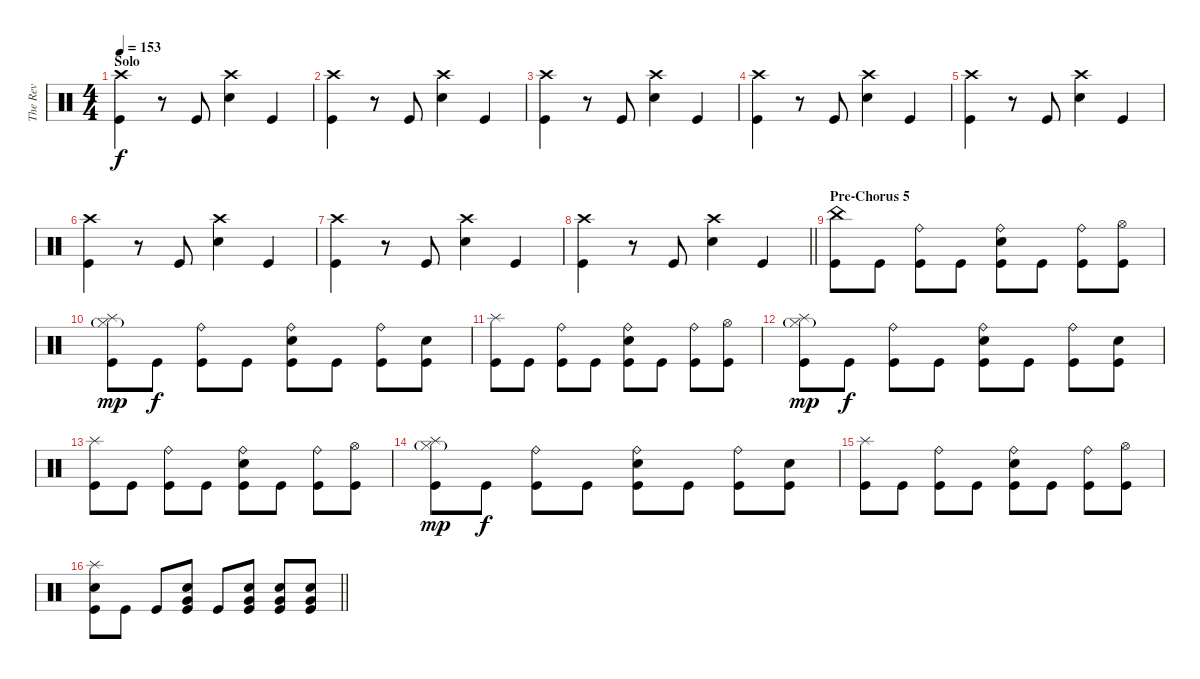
\track ("The Rev" "The Rev") {instrument percussion}
\staff {score}
\articulation defaults
\ts (4 4)
\section ("" "Solo")
\tempo 153
\clef neutral
\ks c
("Crash high (hit)" "Kick (hit)").4{dy f} r.8 "Kick (hit)".8 ("Crash high (hit)" "Electric Snare (hit)").4 "Kick (hit)".4 |
("Crash high (hit)" "Kick (hit)").4 r.8 "Kick (hit)".8 ("Crash high (hit)" "Electric Snare (hit)").4 "Kick (hit)".4 |
("Crash high (hit)" "Kick (hit)").4 r.8 "Kick (hit)".8 ("Crash high (hit)" "Electric Snare (hit)").4 "Kick (hit)".4 |
("Crash high (hit)" "Kick (hit)").4 r.8 "Kick (hit)".8 ("Crash high (hit)" "Electric Snare (hit)").4 "Kick (hit)".4 |
("Crash high (hit)" "Kick (hit)").4 r.8 "Kick (hit)".8 ("Crash high (hit)" "Electric Snare (hit)").4 "Kick (hit)".4 |
("Crash high (hit)" "Kick (hit)").4 r.8 "Kick (hit)".8 ("Crash high (hit)" "Electric Snare (hit)").4 "Kick (hit)".4 |
("Crash high (hit)" "Kick (hit)").4 r.8 "Kick (hit)".8 ("Crash high (hit)" "Electric Snare (hit)").4 "Kick (hit)".4 |
\barLineRight lightlight
("Crash high (hit)" "Kick (hit)").4 r.8 "Kick (hit)".8 ("Crash high (hit)" "Electric Snare (hit)").4 "Kick (hit)".4 |
\section ("" "Pre-Chorus 5")
("China (hit)" "Kick (hit)").8 "Kick (hit)".8 ("Ride (bell)" "Kick (hit)").8 "Kick (hit)".8 ("Ride (bell)" "Electric Snare (hit)" "Kick (hit)").8 "Kick (hit)".8 ("Ride (bell)" "Kick (hit)").8 ("Hi-Hat (open)" "Kick (hit)").8 |
("Splash (hit)" "Hi-Hat (closed)"{g} "Kick (hit)").8{dy mp} "Kick (hit)".8{dy f} ("Ride (bell)" "Kick (hit)").8 "Kick (hit)".8 ("Ride (bell)" "Electric Snare (hit)" "Kick (hit)").8 "Kick (hit)".8 ("Ride (bell)" "Kick (hit)").8 ("Electric Snare (hit)" "Kick (hit)").8 |
("Splash (hit)" "Kick (hit)").8 "Kick (hit)".8 ("Ride (bell)" "Kick (hit)").8 "Kick (hit)".8 ("Ride (bell)" "Electric Snare (hit)" "Kick (hit)").8 "Kick (hit)".8 ("Ride (bell)" "Kick (hit)").8 ("Hi-Hat (open)" "Kick (hit)").8 |
("Splash (hit)" "Hi-Hat (closed)"{g} "Kick (hit)").8{dy mp} "Kick (hit)".8{dy f} ("Ride (bell)" "Kick (hit)").8 "Kick (hit)".8 ("Ride (bell)" "Electric Snare (hit)" "Kick (hit)").8 "Kick (hit)".8 ("Ride (bell)" "Kick (hit)").8 ("Electric Snare (hit)" "Kick (hit)").8 |
("Splash (hit)" "Kick (hit)").8 "Kick (hit)".8 ("Ride (bell)" "Kick (hit)").8 "Kick (hit)".8 ("Ride (bell)" "Electric Snare (hit)" "Kick (hit)").8 "Kick (hit)".8 ("Ride (bell)" "Kick (hit)").8 ("Hi-Hat (open)" "Kick (hit)").8 |
("Splash (hit)" "Hi-Hat (closed)"{g} "Kick (hit)").8{dy mp} "Kick (hit)".8{dy f} ("Ride (bell)" "Kick (hit)").8 "Kick (hit)".8 ("Ride (bell)" "Electric Snare (hit)" "Kick (hit)").8 "Kick (hit)".8 ("Ride (bell)" "Kick (hit)").8 ("Electric Snare (hit)" "Kick (hit)").8 |
("Splash (hit)" "Kick (hit)").8 "Kick (hit)".8 ("Ride (bell)" "Kick (hit)").8 "Kick (hit)".8 ("Ride (bell)" "Electric Snare (hit)" "Kick (hit)").8 "Kick (hit)".8 ("Ride (bell)" "Kick (hit)").8 ("Hi-Hat (open)" "Kick (hit)").8 |
\barLineRight lightlight
("Splash (hit)" "Electric Snare (hit)" "Kick (hit)").8 "Kick (hit)".8 "Kick (hit)".8 ("Very Low Tom (hit)" "Electric Snare (hit)" "Kick (hit)").8 "Kick (hit)".8 ("Very Low Tom (hit)" "Electric Snare (hit)" "Kick (hit)").8 ("Very Low Tom (hit)" "Electric Snare (hit)" "Kick (hit)").8 ("Very Low Tom (hit)" "Electric Snare (hit)" "Kick (hit)").8
